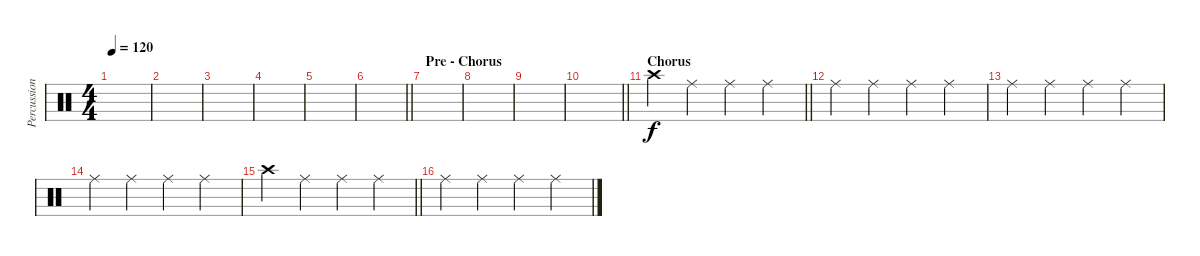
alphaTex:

\track ("Percussion" "Percussion") {instrument percussion}
\staff {score}
\articulation defaults
\ts (4 4)
\tempo 120
\clef neutral
\ks c
|
|
|
|
|
\barLineRight lightlight
|
\section ("" "Pre - Chorus")
|
|
|
\barLineRight lightlight
|
\section ("" "Chorus")
\barLineRight lightlight "Crash high (hit)".4 "Ride (middle)".4 "Ride (middle)".4 "Ride (middle)".4
|
"Ride (middle)".4 "Ride (middle)".4 "Ride (middle)".4 "Ride (middle)".4 |
"Ride (middle)".4 "Ride (middle)".4 "Ride (middle)".4 "Ride (middle)".4 |
"Ride (middle)".4 "Ride (middle)".4 "Ride (middle)".4 "Ride (middle)".4 |
\barLineRight lightlight "Crash high (hit)".4 "Ride (middle)".4 "Ride (middle)".4 "Ride (middle)".4
|
"Ride (middle)".4 "Ride (middle)".4 "Ride (middle)".4 "Ride (middle)".4
